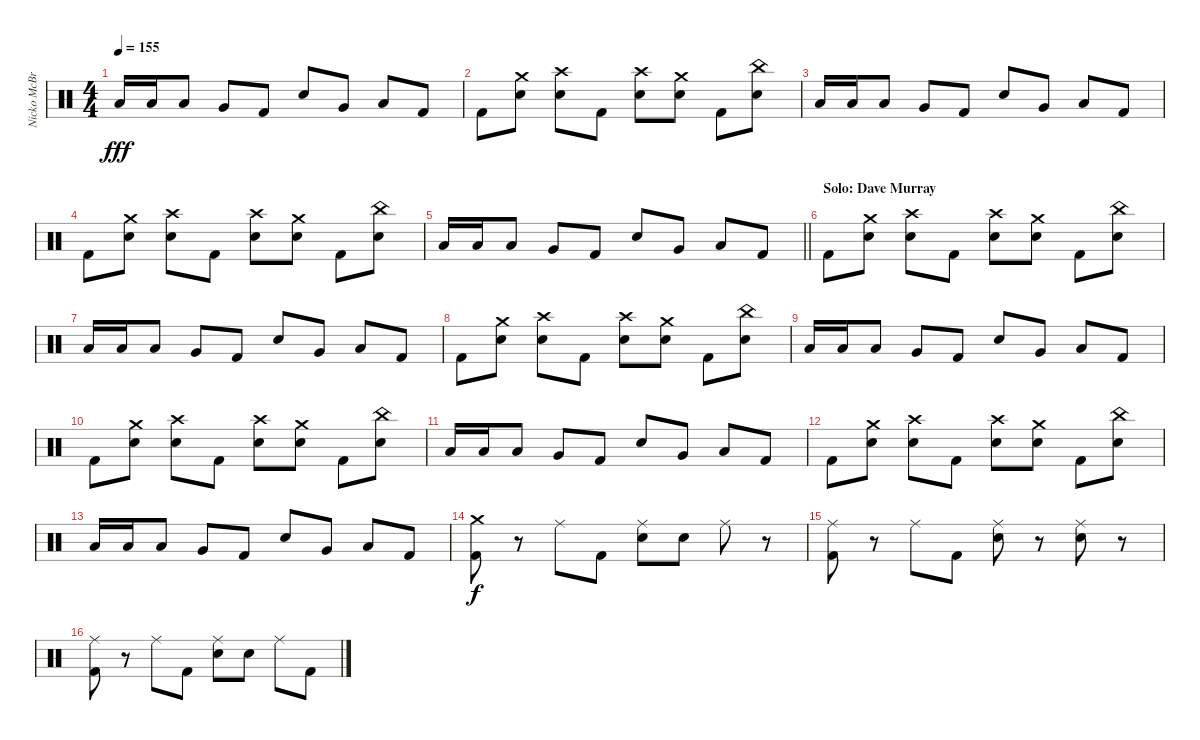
\track ("Nicko McBrain" "Nicko McBr") {instrument percussion}
\staff {score}
\articulation defaults
\ts (4 4)
\tempo 155
\clef neutral
\ks c "Low Floor Tom (hit)".16{dy fff} "Low Floor Tom (hit)".16 "Low Floor Tom (hit)".8 "Very Low Tom (hit)".8 "Kick (hit) 2".8 "Snare (hit) 2".8 "Very Low Tom (hit)".8 "Low Floor Tom (hit)".8 "Kick (hit) 2".8
|
"Kick (hit) 2".8 ("Crash medium (hit)" "Snare (hit) 2").8 ("Crash high (hit)" "Snare (hit) 2").8 "Kick (hit) 2".8 ("Crash high (hit)" "Snare (hit) 2").8 ("Crash medium (hit)" "Snare (hit) 2").8 "Kick (hit) 2".8 ("China (hit)" "Snare (hit) 2").8 |
"Low Floor Tom (hit)".16 "Low Floor Tom (hit)".16 "Low Floor Tom (hit)".8 "Very Low Tom (hit)".8 "Kick (hit) 2".8 "Snare (hit) 2".8 "Very Low Tom (hit)".8 "Low Floor Tom (hit)".8 "Kick (hit) 2".8 |
"Kick (hit) 2".8 ("Crash medium (hit)" "Snare (hit) 2").8 ("Crash high (hit)" "Snare (hit) 2").8 "Kick (hit) 2".8 ("Crash high (hit)" "Snare (hit) 2").8 ("Crash medium (hit)" "Snare (hit) 2").8 "Kick (hit) 2".8 ("China (hit)" "Snare (hit) 2").8 |
\barLineRight lightlight "Low Floor Tom (hit)".16 "Low Floor Tom (hit)".16 "Low Floor Tom (hit)".8 "Very Low Tom (hit)".8 "Kick (hit) 2".8 "Snare (hit) 2".8 "Very Low Tom (hit)".8 "Low Floor Tom (hit)".8 "Kick (hit) 2".8
|
\section ("" "Solo: Dave Murray")
"Kick (hit) 2".8 ("Crash medium (hit)" "Snare (hit) 2").8 ("Crash high (hit)" "Snare (hit) 2").8 "Kick (hit) 2".8 ("Crash high (hit)" "Snare (hit) 2").8 ("Crash medium (hit)" "Snare (hit) 2").8 "Kick (hit) 2".8 ("China (hit)" "Snare (hit) 2").8 |
"Low Floor Tom (hit)".16 "Low Floor Tom (hit)".16 "Low Floor Tom (hit)".8 "Very Low Tom (hit)".8 "Kick (hit) 2".8 "Snare (hit) 2".8 "Very Low Tom (hit)".8 "Low Floor Tom (hit)".8 "Kick (hit) 2".8 |
"Kick (hit) 2".8 ("Crash medium (hit)" "Snare (hit) 2").8 ("Crash high (hit)" "Snare (hit) 2").8 "Kick (hit) 2".8 ("Crash high (hit)" "Snare (hit) 2").8 ("Crash medium (hit)" "Snare (hit) 2").8 "Kick (hit) 2".8 ("China (hit)" "Snare (hit) 2").8 |
"Low Floor Tom (hit)".16 "Low Floor Tom (hit)".16 "Low Floor Tom (hit)".8 "Very Low Tom (hit)".8 "Kick (hit) 2".8 "Snare (hit) 2".8 "Very Low Tom (hit)".8 "Low Floor Tom (hit)".8 "Kick (hit) 2".8 |
"Kick (hit) 2".8 ("Crash medium (hit)" "Snare (hit) 2").8 ("Crash high (hit)" "Snare (hit) 2").8 "Kick (hit) 2".8 ("Crash high (hit)" "Snare (hit) 2").8 ("Crash medium (hit)" "Snare (hit) 2").8 "Kick (hit) 2".8 ("China (hit)" "Snare (hit) 2").8 |
"Low Floor Tom (hit)".16 "Low Floor Tom (hit)".16 "Low Floor Tom (hit)".8 "Very Low Tom (hit)".8 "Kick (hit) 2".8 "Snare (hit) 2".8 "Very Low Tom (hit)".8 "Low Floor Tom (hit)".8 "Kick (hit) 2".8 |
"Kick (hit) 2".8 ("Crash medium (hit)" "Snare (hit) 2").8 ("Crash high (hit)" "Snare (hit) 2").8 "Kick (hit) 2".8 ("Crash high (hit)" "Snare (hit) 2").8 ("Crash medium (hit)" "Snare (hit) 2").8 "Kick (hit) 2".8 ("China (hit)" "Snare (hit) 2").8 |
"Low Floor Tom (hit)".16 "Low Floor Tom (hit)".16 "Low Floor Tom (hit)".8 "Very Low Tom (hit)".8 "Kick (hit) 2".8 "Snare (hit) 2".8 "Very Low Tom (hit)".8 "Low Floor Tom (hit)".8 "Kick (hit) 2".8 |
("Crash medium (hit)" "Kick (hit) 2").8{dy f} r.8 "Ride (middle)".8 "Kick (hit) 2".8 ("Ride (middle)" "Snare (hit) 2").8 "Snare (hit) 2".8 "Ride (middle)".8 r.8 |
("Ride (middle)" "Kick (hit) 2").8 r.8 "Ride (middle)".8 "Kick (hit) 2".8 ("Ride (middle)" "Snare (hit) 2").8 r.8 ("Ride (middle)" "Snare (hit) 2").8 r.8 |
("Ride (middle)" "Kick (hit) 2").8 r.8 "Ride (middle)".8 "Kick (hit) 2".8 ("Ride (middle)" "Snare (hit) 2").8 "Snare (hit) 2".8 "Ride (middle)".8 "Kick (hit) 2".8
